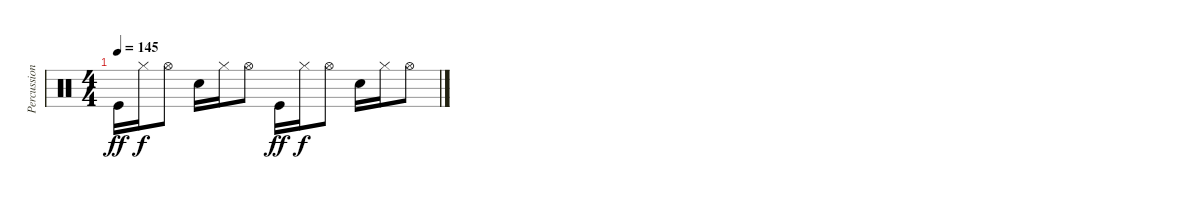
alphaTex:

\track ("Percussion" "Percussion") {instrument percussion}
\staff {score}
\articulation defaults
\ts (4 4)
\tempo 145
\clef neutral
\ks c "Kick (hit)".16{dy ff} "Hi-Hat (closed)".16{dy f} "Hi-Hat (open)".8 "Electric Snare (hit)".16 "Hi-Hat (closed)".16 "Hi-Hat (open)".8 "Kick (hit)".16{dy ff} "Hi-Hat (closed)".16{dy f} "Hi-Hat (open)".8 "Electric Snare (hit)".16 "Hi-Hat (closed)".16 "Hi-Hat (open)".8
